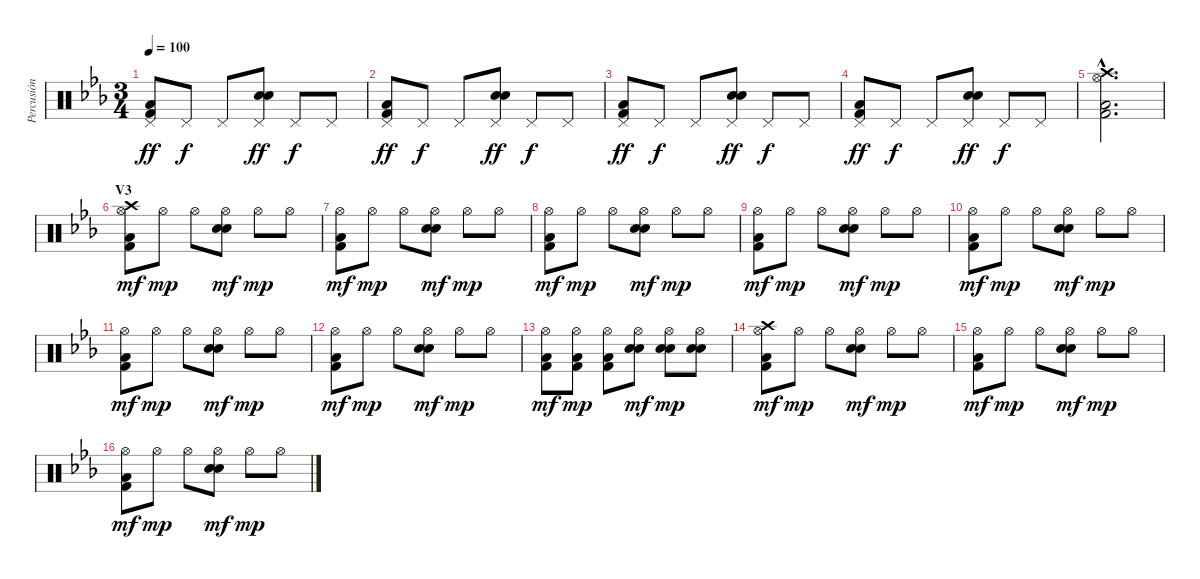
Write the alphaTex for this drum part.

\track ("Percusión" "Percusión") {instrument percussion}
\staff {score}
\articulation defaults
\ts (3 4)
\tempo 100
\clef neutral
\ks eb
("Pedal Hi-Hat (hit)" "Low Floor Tom (hit)" "Kick (hit) 2").8{dy ff} "Pedal Hi-Hat (hit)".8{dy f} "Pedal Hi-Hat (hit)".8 ("Pedal Hi-Hat (hit)" "Electric Snare (hit)" "Snare (hit) 2").8{dy ff} "Pedal Hi-Hat (hit)".8{dy f} "Pedal Hi-Hat (hit)".8 |
("Pedal Hi-Hat (hit)" "Low Floor Tom (hit)" "Kick (hit) 2").8{dy ff} "Pedal Hi-Hat (hit)".8{dy f} "Pedal Hi-Hat (hit)".8 ("Pedal Hi-Hat (hit)" "Electric Snare (hit)" "Snare (hit) 2").8{dy ff} "Pedal Hi-Hat (hit)".8{dy f} "Pedal Hi-Hat (hit)".8 |
("Pedal Hi-Hat (hit)" "Low Floor Tom (hit)" "Kick (hit) 2").8{dy ff} "Pedal Hi-Hat (hit)".8{dy f} "Pedal Hi-Hat (hit)".8 ("Pedal Hi-Hat (hit)" "Electric Snare (hit)" "Snare (hit) 2").8{dy ff} "Pedal Hi-Hat (hit)".8{dy f} "Pedal Hi-Hat (hit)".8 |
("Pedal Hi-Hat (hit)" "Low Floor Tom (hit)" "Kick (hit) 2").8{dy ff} "Pedal Hi-Hat (hit)".8{dy f} "Pedal Hi-Hat (hit)".8 ("Pedal Hi-Hat (hit)" "Electric Snare (hit)" "Snare (hit) 2").8{dy ff} "Pedal Hi-Hat (hit)".8{dy f} "Pedal Hi-Hat (hit)".8 |
("Hi-Hat (open)"{hac} "Low Floor Tom (hit)"{hac} "Kick (hit) 2"{hac} "Crash high (hit)"{hac}).2{d} |
\section ("" "V3")
("Hi-Hat (open)" "Low Floor Tom (hit)" "Kick (hit) 2" "Crash high (hit)").8{dy mf} "Hi-Hat (open)".8{dy mp} "Hi-Hat (open)".8 ("Hi-Hat (open)" "Electric Snare (hit)" "Snare (hit) 2").8{dy mf} "Hi-Hat (open)".8{dy mp} "Hi-Hat (open)".8 |
("Hi-Hat (open)" "Low Floor Tom (hit)" "Kick (hit) 2").8{dy mf} "Hi-Hat (open)".8{dy mp} "Hi-Hat (open)".8 ("Hi-Hat (open)" "Electric Snare (hit)" "Snare (hit) 2").8{dy mf} "Hi-Hat (open)".8{dy mp} "Hi-Hat (open)".8 |
("Hi-Hat (open)" "Low Floor Tom (hit)" "Kick (hit) 2").8{dy mf} "Hi-Hat (open)".8{dy mp} "Hi-Hat (open)".8 ("Hi-Hat (open)" "Electric Snare (hit)" "Snare (hit) 2").8{dy mf} "Hi-Hat (open)".8{dy mp} "Hi-Hat (open)".8 |
("Hi-Hat (open)" "Low Floor Tom (hit)" "Kick (hit) 2").8{dy mf} "Hi-Hat (open)".8{dy mp} "Hi-Hat (open)".8 ("Hi-Hat (open)" "Electric Snare (hit)" "Snare (hit) 2").8{dy mf} "Hi-Hat (open)".8{dy mp} "Hi-Hat (open)".8 |
("Hi-Hat (open)" "Low Floor Tom (hit)" "Kick (hit) 2").8{dy mf} "Hi-Hat (open)".8{dy mp} "Hi-Hat (open)".8 ("Hi-Hat (open)" "Electric Snare (hit)" "Snare (hit) 2").8{dy mf} "Hi-Hat (open)".8{dy mp} "Hi-Hat (open)".8 |
("Hi-Hat (open)" "Low Floor Tom (hit)" "Kick (hit) 2").8{dy mf} "Hi-Hat (open)".8{dy mp} "Hi-Hat (open)".8 ("Hi-Hat (open)" "Electric Snare (hit)" "Snare (hit) 2").8{dy mf} "Hi-Hat (open)".8{dy mp} "Hi-Hat (open)".8 |
("Hi-Hat (open)" "Low Floor Tom (hit)" "Kick (hit) 2").8{dy mf} "Hi-Hat (open)".8{dy mp} "Hi-Hat (open)".8 ("Hi-Hat (open)" "Electric Snare (hit)" "Snare (hit) 2").8{dy mf} "Hi-Hat (open)".8{dy mp} "Hi-Hat (open)".8 |
("Hi-Hat (open)" "Low Floor Tom (hit)" "Kick (hit) 2").8{dy mf} ("Hi-Hat (open)" "Low Floor Tom (hit)" "Kick (hit) 2").8{dy mp} ("Hi-Hat (open)" "Low Floor Tom (hit)" "Kick (hit) 2").8 ("Hi-Hat (open)" "Electric Snare (hit)" "Snare (hit) 2").8{dy mf} ("Hi-Hat (open)" "Electric Snare (hit)" "Snare (hit) 2").8{dy mp} ("Hi-Hat (open)" "Electric Snare (hit)" "Snare (hit) 2").8 |
("Hi-Hat (open)" "Low Floor Tom (hit)" "Kick (hit) 2" "Crash high (hit)").8{dy mf} "Hi-Hat (open)".8{dy mp} "Hi-Hat (open)".8 ("Hi-Hat (open)" "Electric Snare (hit)" "Snare (hit) 2").8{dy mf} "Hi-Hat (open)".8{dy mp} "Hi-Hat (open)".8 |
("Hi-Hat (open)" "Low Floor Tom (hit)" "Kick (hit) 2").8{dy mf} "Hi-Hat (open)".8{dy mp} "Hi-Hat (open)".8 ("Hi-Hat (open)" "Electric Snare (hit)" "Snare (hit) 2").8{dy mf} "Hi-Hat (open)".8{dy mp} "Hi-Hat (open)".8 |
("Hi-Hat (open)" "Low Floor Tom (hit)" "Kick (hit) 2").8{dy mf} "Hi-Hat (open)".8{dy mp} "Hi-Hat (open)".8 ("Hi-Hat (open)" "Electric Snare (hit)" "Snare (hit) 2").8{dy mf} "Hi-Hat (open)".8{dy mp} "Hi-Hat (open)".8
